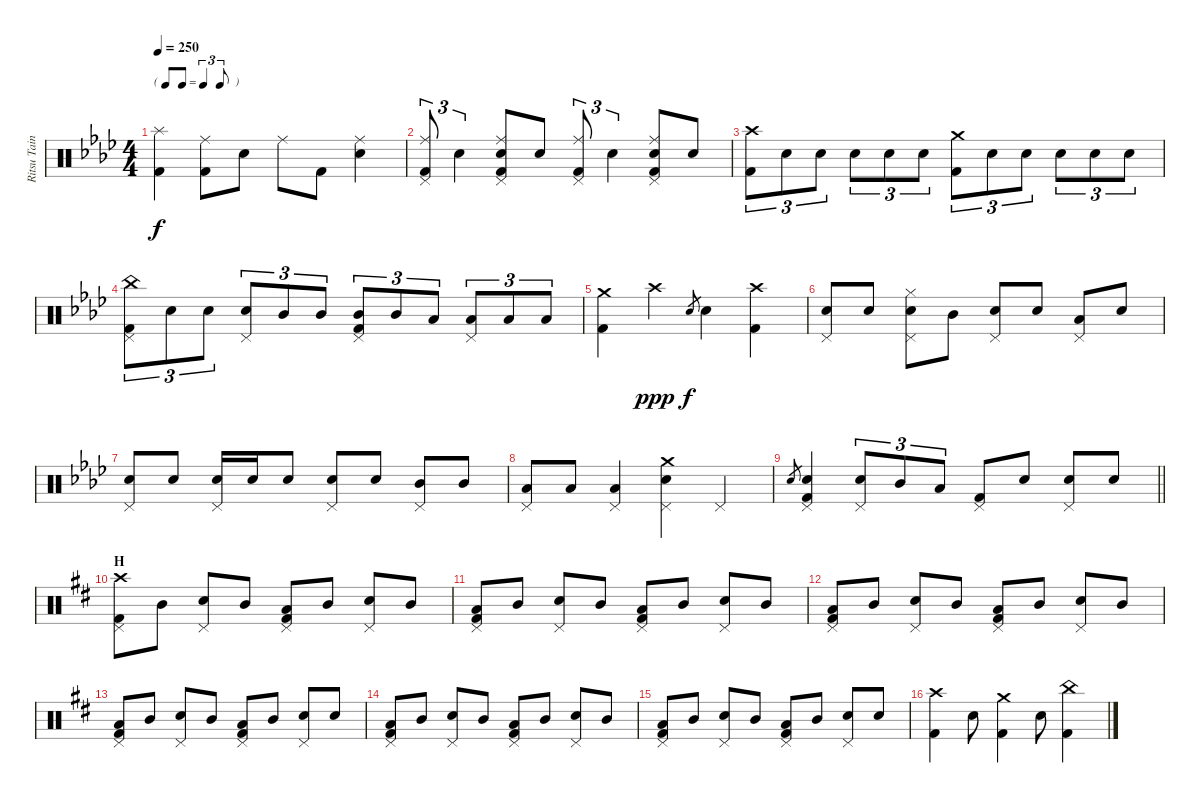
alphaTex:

\track ("Ritsu Tainaka" "Ritsu Tain") {instrument percussion}
\staff {score}
\articulation defaults
\ts (4 4)
\tf triplet8th
\tempo 250
\clef neutral
\ks ab
("Splash (hit)" "Kick (hit) 2").4{dy f} ("Ride (middle)" "Kick (hit) 2").8 "Electric Snare (hit)".8 "Ride (middle)".8 "Kick (hit) 2".8 ("Ride (middle)" "Electric Snare (hit)").4 |
("Ride (middle)" "Pedal Hi-Hat (hit)" "Kick (hit) 2").8{tu (3 2)} "Electric Snare (hit)".4{tu (3 2)} ("Ride (middle)" "Pedal Hi-Hat (hit)" "Electric Snare (hit)" "Kick (hit) 2").8 "Electric Snare (hit)".8 ("Ride (middle)" "Pedal Hi-Hat (hit)" "Kick (hit) 2").8{tu (3 2)} "Electric Snare (hit)".4{tu (3 2)} ("Ride (middle)" "Pedal Hi-Hat (hit)" "Electric Snare (hit)" "Kick (hit) 2").8 "Electric Snare (hit)".8 |
("Crash high (hit)" "Kick (hit) 2").8{tu (3 2)} "Electric Snare (hit)".8{tu (3 2)} "Electric Snare (hit)".8{tu (3 2)} "Electric Snare (hit)".8{tu (3 2)} "Electric Snare (hit)".8{tu (3 2)} "Electric Snare (hit)".8{tu (3 2)} ("Crash medium (hit)" "Kick (hit) 2").8{tu (3 2)} "Electric Snare (hit)".8{tu (3 2)} "Electric Snare (hit)".8{tu (3 2)} "Electric Snare (hit)".8{tu (3 2)} "Electric Snare (hit)".8{tu (3 2)} "Electric Snare (hit)".8{tu (3 2)} |
("China (hit)" "Pedal Hi-Hat (hit)" "Kick (hit) 2").8{tu (3 2)} "Electric Snare (hit)".8{tu (3 2)} "Electric Snare (hit)".8{tu (3 2)} ("Pedal Hi-Hat (hit)" "Electric Snare (hit)").8{tu (3 2)} "Mid Tom (hit)".8{tu (3 2)} "Mid Tom (hit)".8{tu (3 2)} ("Pedal Hi-Hat (hit)" "Mid Tom (hit)" "Kick (hit) 2").8{tu (3 2)} "Mid Tom (hit)".8{tu (3 2)} "Low Floor Tom (hit)".8{tu (3 2)} ("Pedal Hi-Hat (hit)" "Low Floor Tom (hit)").8{tu (3 2)} "Low Floor Tom (hit)".8{tu (3 2)} "Low Floor Tom (hit)".8{tu (3 2)} |
("Crash medium (hit)" "Kick (hit) 2").4 "Crash high (hit)".4{dy ppp} "Electric Snare (hit)".8{gr dy f} "Electric Snare (hit)".4 ("Crash high (hit)" "Kick (hit) 2").4 |
("Pedal Hi-Hat (hit)" "Electric Snare (hit)").8 "Electric Snare (hit)".8 ("Hi-Hat (closed)" "Electric Snare (hit)" "Pedal Hi-Hat (hit)").8 "Mid Tom (hit)".8 ("Pedal Hi-Hat (hit)" "Electric Snare (hit)").8 "Electric Snare (hit)".8 ("Pedal Hi-Hat (hit)" "Low Floor Tom (hit)").8 "Electric Snare (hit)".8 |
("Pedal Hi-Hat (hit)" "Electric Snare (hit)").8 "Electric Snare (hit)".8 ("Pedal Hi-Hat (hit)" "Electric Snare (hit)").16 "Electric Snare (hit)".16 "Electric Snare (hit)".8 ("Pedal Hi-Hat (hit)" "Electric Snare (hit)").8 "Electric Snare (hit)".8 ("Pedal Hi-Hat (hit)" "Mid Tom (hit)").8 "Mid Tom (hit)".8 |
("Pedal Hi-Hat (hit)" "Low Floor Tom (hit)").8 "Low Floor Tom (hit)".8 ("Pedal Hi-Hat (hit)" "Low Floor Tom (hit)").4 ("Crash medium (hit)" "Pedal Hi-Hat (hit)" "Electric Snare (hit)").4 "Pedal Hi-Hat (hit)".4 |
\barLineRight lightlight "Electric Snare (hit)".8{gr}
("Pedal Hi-Hat (hit)" "Electric Snare (hit)" "Kick (hit) 2").4 ("Pedal Hi-Hat (hit)" "Electric Snare (hit)").8{tu (3 2)} "Mid Tom (hit)".8{tu (3 2)} "Low Floor Tom (hit)".8{tu (3 2)} ("Pedal Hi-Hat (hit)" "Kick (hit) 2").8 "Electric Snare (hit)".8 ("Pedal Hi-Hat (hit)" "Electric Snare (hit)").8 "Electric Snare (hit)".8 |
\section ("" "H")
\ks d
("Crash high (hit)" "Pedal Hi-Hat (hit)" "Kick (hit) 2").8 "Mid Tom (hit)".8 ("Pedal Hi-Hat (hit)" "Electric Snare (hit)").8 "Mid Tom (hit)".8 ("Pedal Hi-Hat (hit)" "Low Floor Tom (hit)" "Kick (hit) 2").8 "Mid Tom (hit)".8 ("Pedal Hi-Hat (hit)" "Electric Snare (hit)").8 "Mid Tom (hit)".8 |
("Pedal Hi-Hat (hit)" "Low Floor Tom (hit)" "Kick (hit) 2").8 "Mid Tom (hit)".8 ("Pedal Hi-Hat (hit)" "Electric Snare (hit)").8 "Mid Tom (hit)".8 ("Pedal Hi-Hat (hit)" "Low Floor Tom (hit)" "Kick (hit) 2").8 "Mid Tom (hit)".8 ("Pedal Hi-Hat (hit)" "Electric Snare (hit)").8 "Mid Tom (hit)".8 |
("Pedal Hi-Hat (hit)" "Low Floor Tom (hit)" "Kick (hit) 2").8 "Mid Tom (hit)".8 ("Pedal Hi-Hat (hit)" "Electric Snare (hit)").8 "Mid Tom (hit)".8 ("Pedal Hi-Hat (hit)" "Low Floor Tom (hit)" "Kick (hit) 2").8 "Mid Tom (hit)".8 ("Pedal Hi-Hat (hit)" "Electric Snare (hit)").8 "Mid Tom (hit)".8 |
("Pedal Hi-Hat (hit)" "Low Floor Tom (hit)" "Kick (hit) 2").8 "Mid Tom (hit)".8 ("Pedal Hi-Hat (hit)" "Electric Snare (hit)").8 "Mid Tom (hit)".8 ("Pedal Hi-Hat (hit)" "Low Floor Tom (hit)" "Kick (hit) 2").8 "Mid Tom (hit)".8 ("Pedal Hi-Hat (hit)" "Electric Snare (hit)").8 "Electric Snare (hit)".8 |
("Pedal Hi-Hat (hit)" "Low Floor Tom (hit)" "Kick (hit) 2").8 "Mid Tom (hit)".8 ("Pedal Hi-Hat (hit)" "Electric Snare (hit)").8 "Mid Tom (hit)".8 ("Pedal Hi-Hat (hit)" "Low Floor Tom (hit)" "Kick (hit) 2").8 "Mid Tom (hit)".8 ("Pedal Hi-Hat (hit)" "Electric Snare (hit)").8 "Mid Tom (hit)".8 |
("Pedal Hi-Hat (hit)" "Low Floor Tom (hit)" "Kick (hit) 2").8 "Mid Tom (hit)".8 ("Pedal Hi-Hat (hit)" "Electric Snare (hit)").8 "Mid Tom (hit)".8 ("Pedal Hi-Hat (hit)" "Low Floor Tom (hit)" "Kick (hit) 2").8 "Mid Tom (hit)".8 ("Pedal Hi-Hat (hit)" "Electric Snare (hit)").8 "Electric Snare (hit)".8 |
("Crash high (hit)" "Kick (hit) 2").4 "Electric Snare (hit)".8 ("Crash medium (hit)" "Kick (hit) 2").4 "Electric Snare (hit)".8 ("China (hit)" "Kick (hit) 2").4
